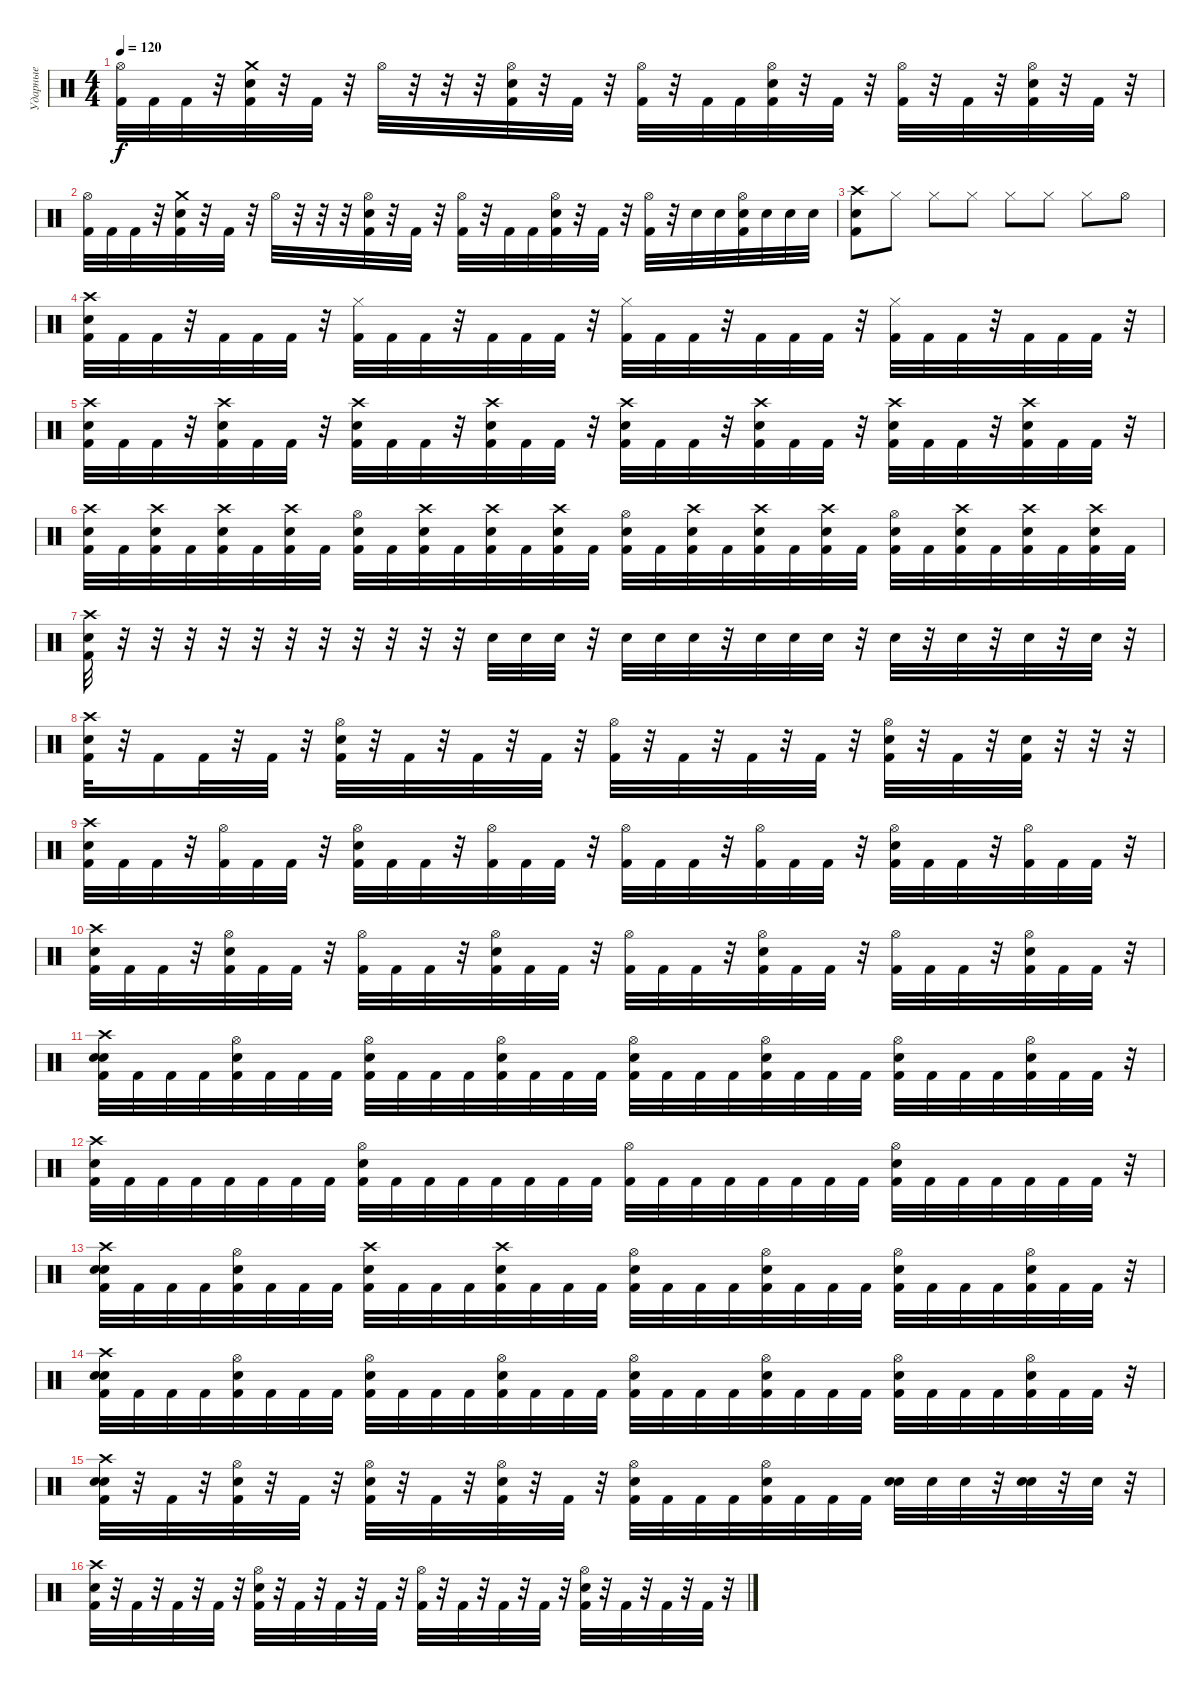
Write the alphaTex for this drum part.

\track ("Ударные" "Ударные") {instrument percussion}
\staff {score}
\articulation defaults
\ts (4 4)
\tempo 120
\clef neutral
\ks c
("Hi-Hat (open)" "Kick (hit) 2").32{dy f} "Kick (hit) 2".32 "Kick (hit) 2".32 r.32 ("Crash medium (hit)" "Snare (hit) 2" "Kick (hit) 2").32 r.32 "Kick (hit) 2".32 r.32 "Hi-Hat (open)".32 r.32 r.32 r.32 ("Hi-Hat (open)" "Snare (hit) 2" "Kick (hit) 2").32 r.32 "Kick (hit) 2".32 r.32 ("Hi-Hat (open)" "Kick (hit) 2").32 r.32 "Kick (hit) 2".32 "Kick (hit) 2".32 ("Hi-Hat (open)" "Snare (hit) 2" "Kick (hit) 2").32 r.32 "Kick (hit) 2".32 r.32 ("Hi-Hat (open)" "Kick (hit) 2").32 r.32 "Kick (hit) 2".32 r.32 ("Hi-Hat (open)" "Snare (hit) 2" "Kick (hit) 2").32 r.32 "Kick (hit) 2".32 r.32 |
("Hi-Hat (open)" "Kick (hit) 2").32 "Kick (hit) 2".32 "Kick (hit) 2".32 r.32 ("Crash medium (hit)" "Snare (hit) 2" "Kick (hit) 2").32 r.32 "Kick (hit) 2".32 r.32 "Hi-Hat (open)".32 r.32 r.32 r.32 ("Hi-Hat (open)" "Snare (hit) 2" "Kick (hit) 2").32 r.32 "Kick (hit) 2".32 r.32 ("Hi-Hat (open)" "Kick (hit) 2").32 r.32 "Kick (hit) 2".32 "Kick (hit) 2".32 ("Hi-Hat (open)" "Snare (hit) 2" "Kick (hit) 2").32 r.32 "Kick (hit) 2".32 r.32 ("Hi-Hat (open)" "Kick (hit) 2").32 r.32 "Snare (hit) 2".32 "Snare (hit) 2".32 ("Hi-Hat (open)" "Snare (hit) 2" "Kick (hit) 2").32 "Snare (hit) 2".32 "Snare (hit) 2".32 "Snare (hit) 2".32 |
("Crash high (hit)" "Kick (hit) 2" "Snare (hit) 2").8 "Hi-Hat (closed)".8 "Hi-Hat (closed)".8 "Hi-Hat (closed)".8 "Hi-Hat (closed)".8 "Hi-Hat (closed)".8 "Hi-Hat (closed)".8 "Hi-Hat (open)".8 |
("Crash high (hit)" "Kick (hit) 2" "Snare (hit) 2").32 "Kick (hit) 2".32 "Kick (hit) 2".32 r.32 "Kick (hit) 2".32 "Kick (hit) 2".32 "Kick (hit) 2".32 r.32 ("Hi-Hat (closed)" "Kick (hit) 2").32 "Kick (hit) 2".32 "Kick (hit) 2".32 r.32 "Kick (hit) 2".32 "Kick (hit) 2".32 "Kick (hit) 2".32 r.32 ("Hi-Hat (closed)" "Kick (hit) 2").32 "Kick (hit) 2".32 "Kick (hit) 2".32 r.32 "Kick (hit) 2".32 "Kick (hit) 2".32 "Kick (hit) 2".32 r.32 ("Hi-Hat (closed)" "Kick (hit) 2").32 "Kick (hit) 2".32 "Kick (hit) 2".32 r.32 "Kick (hit) 2".32 "Kick (hit) 2".32 "Kick (hit) 2".32 r.32 |
("Crash high (hit)" "Kick (hit) 2" "Snare (hit) 2").32 "Kick (hit) 2".32 "Kick (hit) 2".32 r.32 ("Crash high (hit)" "Kick (hit) 2" "Snare (hit) 2").32 "Kick (hit) 2".32 "Kick (hit) 2".32 r.32 ("Crash high (hit)" "Kick (hit) 2" "Snare (hit) 2").32 "Kick (hit) 2".32 "Kick (hit) 2".32 r.32 ("Crash high (hit)" "Kick (hit) 2" "Snare (hit) 2").32 "Kick (hit) 2".32 "Kick (hit) 2".32 r.32 ("Crash high (hit)" "Kick (hit) 2" "Snare (hit) 2").32 "Kick (hit) 2".32 "Kick (hit) 2".32 r.32 ("Crash high (hit)" "Kick (hit) 2" "Snare (hit) 2").32 "Kick (hit) 2".32 "Kick (hit) 2".32 r.32 ("Crash high (hit)" "Kick (hit) 2" "Snare (hit) 2").32 "Kick (hit) 2".32 "Kick (hit) 2".32 r.32 ("Crash high (hit)" "Kick (hit) 2" "Snare (hit) 2").32 "Kick (hit) 2".32 "Kick (hit) 2".32 r.32 |
("Crash high (hit)" "Kick (hit) 2" "Snare (hit) 2").32 "Kick (hit) 2".32 ("Crash high (hit)" "Kick (hit) 2" "Snare (hit) 2").32 "Kick (hit) 2".32 ("Crash high (hit)" "Kick (hit) 2" "Snare (hit) 2").32 "Kick (hit) 2".32 ("Crash high (hit)" "Kick (hit) 2" "Snare (hit) 2").32 "Kick (hit) 2".32 ("Hi-Hat (open)" "Kick (hit) 2" "Snare (hit) 2").32 "Kick (hit) 2".32 ("Crash high (hit)" "Kick (hit) 2" "Snare (hit) 2").32 "Kick (hit) 2".32 ("Crash high (hit)" "Kick (hit) 2" "Snare (hit) 2").32 "Kick (hit) 2".32 ("Crash high (hit)" "Kick (hit) 2" "Snare (hit) 2").32 "Kick (hit) 2".32 ("Hi-Hat (open)" "Kick (hit) 2" "Snare (hit) 2").32 "Kick (hit) 2".32 ("Crash high (hit)" "Kick (hit) 2" "Snare (hit) 2").32 "Kick (hit) 2".32 ("Crash high (hit)" "Kick (hit) 2" "Snare (hit) 2").32 "Kick (hit) 2".32 ("Crash high (hit)" "Kick (hit) 2" "Snare (hit) 2").32 "Kick (hit) 2".32 ("Hi-Hat (open)" "Kick (hit) 2" "Snare (hit) 2").32 "Kick (hit) 2".32 ("Crash high (hit)" "Kick (hit) 2" "Snare (hit) 2").32 "Kick (hit) 2".32 ("Crash high (hit)" "Kick (hit) 2" "Snare (hit) 2").32 "Kick (hit) 2".32 ("Crash high (hit)" "Kick (hit) 2" "Snare (hit) 2").32 "Kick (hit) 2".32 |
("Crash high (hit)" "Kick (hit) 2" "Snare (hit) 2").32 r.32 r.32 r.32 r.32 r.32 r.32 r.32 r.32 r.32 r.32 r.32 "Snare (hit) 2".32 "Snare (hit) 2".32 "Snare (hit) 2".32 r.32 "Snare (hit) 2".32 "Snare (hit) 2".32 "Snare (hit) 2".32 r.32 "Snare (hit) 2".32 "Snare (hit) 2".32 "Snare (hit) 2".32 r.32 "Snare (hit) 2".32 r.32 "Snare (hit) 2".32 r.32 "Snare (hit) 2".32 r.32 "Snare (hit) 2".32 r.32 |
("Crash high (hit)" "Kick (hit) 2" "Snare (hit) 2").32 r.32 "Kick (hit) 2".16 "Kick (hit) 2".32 r.32 "Kick (hit) 2".32 r.32 ("Hi-Hat (open)" "Snare (hit) 2" "Kick (hit) 2").32 r.32 "Kick (hit) 2".32 r.32 "Kick (hit) 2".32 r.32 "Kick (hit) 2".32 r.32 ("Hi-Hat (open)" "Kick (hit) 2").32 r.32 "Kick (hit) 2".32 r.32 "Kick (hit) 2".32 r.32 "Kick (hit) 2".32 r.32 ("Hi-Hat (open)" "Snare (hit) 2" "Kick (hit) 2").32 r.32 "Kick (hit) 2".32 r.32 ("Snare (hit) 2" "Kick (hit) 2").32 r.32 r.32 r.32 |
("Crash high (hit)" "Kick (hit) 2" "Snare (hit) 2").32 "Kick (hit) 2".32 "Kick (hit) 2".32 r.32 ("Hi-Hat (open)" "Kick (hit) 2").32 "Kick (hit) 2".32 "Kick (hit) 2".32 r.32 ("Hi-Hat (open)" "Snare (hit) 2" "Kick (hit) 2").32 "Kick (hit) 2".32 "Kick (hit) 2".32 r.32 ("Hi-Hat (open)" "Kick (hit) 2").32 "Kick (hit) 2".32 "Kick (hit) 2".32 r.32 ("Hi-Hat (open)" "Kick (hit) 2").32 "Kick (hit) 2".32 "Kick (hit) 2".32 r.32 ("Hi-Hat (open)" "Kick (hit) 2").32 "Kick (hit) 2".32 "Kick (hit) 2".32 r.32 ("Hi-Hat (open)" "Snare (hit) 2" "Kick (hit) 2").32 "Kick (hit) 2".32 "Kick (hit) 2".32 r.32 ("Hi-Hat (open)" "Kick (hit) 2").32 "Kick (hit) 2".32 "Kick (hit) 2".32 r.32 |
("Crash high (hit)" "Kick (hit) 2" "Snare (hit) 2").32 "Kick (hit) 2".32 "Kick (hit) 2".32 r.32 ("Hi-Hat (open)" "Snare (hit) 2" "Kick (hit) 2").32 "Kick (hit) 2".32 "Kick (hit) 2".32 r.32 ("Hi-Hat (open)" "Kick (hit) 2").32 "Kick (hit) 2".32 "Kick (hit) 2".32 r.32 ("Hi-Hat (open)" "Snare (hit) 2" "Kick (hit) 2").32 "Kick (hit) 2".32 "Kick (hit) 2".32 r.32 ("Hi-Hat (open)" "Kick (hit) 2").32 "Kick (hit) 2".32 "Kick (hit) 2".32 r.32 ("Hi-Hat (open)" "Snare (hit) 2" "Kick (hit) 2").32 "Kick (hit) 2".32 "Kick (hit) 2".32 r.32 ("Hi-Hat (open)" "Kick (hit) 2").32 "Kick (hit) 2".32 "Kick (hit) 2".32 r.32 ("Hi-Hat (open)" "Snare (hit) 2" "Kick (hit) 2").32 "Kick (hit) 2".32 "Kick (hit) 2".32 r.32 |
("Crash high (hit)" "Snare (hit) 2" "Kick (hit) 2" "Snare (hit) 2").32 "Kick (hit) 2".32 "Kick (hit) 2".32 "Kick (hit) 2".32 ("Hi-Hat (open)" "Snare (hit) 2" "Kick (hit) 2").32 "Kick (hit) 2".32 "Kick (hit) 2".32 "Kick (hit) 2".32 ("Hi-Hat (open)" "Snare (hit) 2" "Kick (hit) 2").32 "Kick (hit) 2".32 "Kick (hit) 2".32 "Kick (hit) 2".32 ("Hi-Hat (open)" "Snare (hit) 2" "Kick (hit) 2").32 "Kick (hit) 2".32 "Kick (hit) 2".32 "Kick (hit) 2".32 ("Hi-Hat (open)" "Snare (hit) 2" "Kick (hit) 2").32 "Kick (hit) 2".32 "Kick (hit) 2".32 "Kick (hit) 2".32 ("Hi-Hat (open)" "Snare (hit) 2" "Kick (hit) 2").32 "Kick (hit) 2".32 "Kick (hit) 2".32 "Kick (hit) 2".32 ("Hi-Hat (open)" "Snare (hit) 2" "Kick (hit) 2").32 "Kick (hit) 2".32 "Kick (hit) 2".32 "Kick (hit) 2".32 ("Hi-Hat (open)" "Snare (hit) 2" "Kick (hit) 2").32 "Kick (hit) 2".32 "Kick (hit) 2".32 r.32 |
("Crash high (hit)" "Kick (hit) 2" "Snare (hit) 2").32 "Kick (hit) 2".32 "Kick (hit) 2".32 "Kick (hit) 2".32 "Kick (hit) 2".32 "Kick (hit) 2".32 "Kick (hit) 2".32 "Kick (hit) 2".32 ("Hi-Hat (open)" "Snare (hit) 2" "Kick (hit) 2").32 "Kick (hit) 2".32 "Kick (hit) 2".32 "Kick (hit) 2".32 "Kick (hit) 2".32 "Kick (hit) 2".32 "Kick (hit) 2".32 "Kick (hit) 2".32 ("Hi-Hat (open)" "Kick (hit) 2").32 "Kick (hit) 2".32 "Kick (hit) 2".32 "Kick (hit) 2".32 "Kick (hit) 2".32 "Kick (hit) 2".32 "Kick (hit) 2".32 "Kick (hit) 2".32 ("Hi-Hat (open)" "Snare (hit) 2" "Kick (hit) 2").32 "Kick (hit) 2".32 "Kick (hit) 2".32 "Kick (hit) 2".32 "Kick (hit) 2".32 "Kick (hit) 2".32 "Kick (hit) 2".32 r.32 |
("Crash high (hit)" "Snare (hit) 2" "Kick (hit) 2" "Snare (hit) 2").32 "Kick (hit) 2".32 "Kick (hit) 2".32 "Kick (hit) 2".32 ("Hi-Hat (open)" "Snare (hit) 2" "Kick (hit) 2").32 "Kick (hit) 2".32 "Kick (hit) 2".32 "Kick (hit) 2".32 ("Crash high (hit)" "Snare (hit) 2" "Kick (hit) 2").32 "Kick (hit) 2".32 "Kick (hit) 2".32 "Kick (hit) 2".32 ("Crash high (hit)" "Snare (hit) 2" "Kick (hit) 2").32 "Kick (hit) 2".32 "Kick (hit) 2".32 "Kick (hit) 2".32 ("Hi-Hat (open)" "Snare (hit) 2" "Kick (hit) 2").32 "Kick (hit) 2".32 "Kick (hit) 2".32 "Kick (hit) 2".32 ("Hi-Hat (open)" "Snare (hit) 2" "Kick (hit) 2").32 "Kick (hit) 2".32 "Kick (hit) 2".32 "Kick (hit) 2".32 ("Hi-Hat (open)" "Snare (hit) 2" "Kick (hit) 2").32 "Kick (hit) 2".32 "Kick (hit) 2".32 "Kick (hit) 2".32 ("Hi-Hat (open)" "Snare (hit) 2" "Kick (hit) 2").32 "Kick (hit) 2".32 "Kick (hit) 2".32 r.32 |
("Crash high (hit)" "Snare (hit) 2" "Kick (hit) 2" "Snare (hit) 2").32 "Kick (hit) 2".32 "Kick (hit) 2".32 "Kick (hit) 2".32 ("Hi-Hat (open)" "Snare (hit) 2" "Kick (hit) 2").32 "Kick (hit) 2".32 "Kick (hit) 2".32 "Kick (hit) 2".32 ("Hi-Hat (open)" "Snare (hit) 2" "Kick (hit) 2").32 "Kick (hit) 2".32 "Kick (hit) 2".32 "Kick (hit) 2".32 ("Hi-Hat (open)" "Snare (hit) 2" "Kick (hit) 2").32 "Kick (hit) 2".32 "Kick (hit) 2".32 "Kick (hit) 2".32 ("Hi-Hat (open)" "Snare (hit) 2" "Kick (hit) 2").32 "Kick (hit) 2".32 "Kick (hit) 2".32 "Kick (hit) 2".32 ("Hi-Hat (open)" "Snare (hit) 2" "Kick (hit) 2").32 "Kick (hit) 2".32 "Kick (hit) 2".32 "Kick (hit) 2".32 ("Hi-Hat (open)" "Snare (hit) 2" "Kick (hit) 2").32 "Kick (hit) 2".32 "Kick (hit) 2".32 "Kick (hit) 2".32 ("Hi-Hat (open)" "Snare (hit) 2" "Kick (hit) 2").32 "Kick (hit) 2".32 "Kick (hit) 2".32 r.32 |
("Crash high (hit)" "Snare (hit) 2" "Kick (hit) 2" "Snare (hit) 2").32 r.32 "Kick (hit) 2".32 r.32 ("Hi-Hat (open)" "Snare (hit) 2" "Kick (hit) 2").32 r.32 "Kick (hit) 2".32 r.32 ("Hi-Hat (open)" "Snare (hit) 2" "Kick (hit) 2").32 r.32 "Kick (hit) 2".32 r.32 ("Hi-Hat (open)" "Snare (hit) 2" "Kick (hit) 2").32 r.32 "Kick (hit) 2".32 r.32 ("Hi-Hat (open)" "Snare (hit) 2" "Kick (hit) 2").32 "Kick (hit) 2".32 "Kick (hit) 2".32 "Kick (hit) 2".32 ("Hi-Hat (open)" "Snare (hit) 2" "Kick (hit) 2").32 "Kick (hit) 2".32 "Kick (hit) 2".32 "Kick (hit) 2".32 ("Snare (hit) 2" "Snare (hit) 2").32 "Snare (hit) 2".32 "Snare (hit) 2".32 r.32 ("Snare (hit) 2" "Snare (hit) 2").32 r.32 "Snare (hit) 2".32 r.32 |
("Crash high (hit)" "Kick (hit) 2" "Snare (hit) 2").32 r.32 "Kick (hit) 2".32 r.32 "Kick (hit) 2".32 r.32 "Kick (hit) 2".32 r.32 ("Hi-Hat (open)" "Snare (hit) 2" "Kick (hit) 2").32 r.32 "Kick (hit) 2".32 r.32 "Kick (hit) 2".32 r.32 "Kick (hit) 2".32 r.32 ("Hi-Hat (open)" "Kick (hit) 2").32 r.32 "Kick (hit) 2".32 r.32 "Kick (hit) 2".32 r.32 "Kick (hit) 2".32 r.32 ("Hi-Hat (open)" "Snare (hit) 2" "Kick (hit) 2").32 r.32 "Kick (hit) 2".32 r.32 "Kick (hit) 2".32 r.32 "Kick (hit) 2".32 r.32
